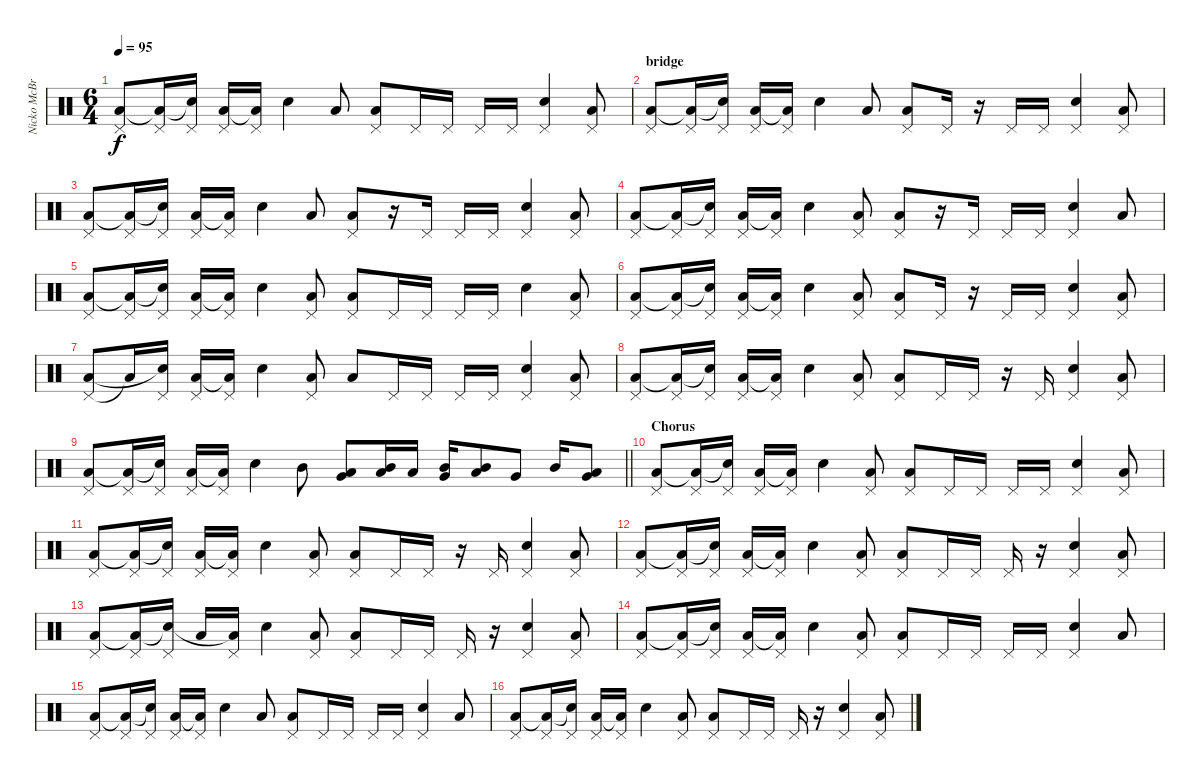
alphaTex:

\track ("Nicko McBrain" "Nicko McBr") {instrument percussion}
\staff {score}
\articulation defaults
\ts (6 4)
\tempo 95
\clef neutral
\ks c
("Pedal Hi-Hat (hit)" "Low Floor Tom (hit)").8{dy f} ("Pedal Hi-Hat (hit)" "Low Floor Tom (hit)"{t}).16 ("Pedal Hi-Hat (hit)" "Electric Snare (hit)"{t}).16 ("Pedal Hi-Hat (hit)" "Low Floor Tom (hit)").16 ("Pedal Hi-Hat (hit)" "Low Floor Tom (hit)"{t}).16 "Electric Snare (hit)".4 "Low Floor Tom (hit)".8 ("Pedal Hi-Hat (hit)" "Low Floor Tom (hit)").8 "Pedal Hi-Hat (hit)".16 "Pedal Hi-Hat (hit)".16 "Pedal Hi-Hat (hit)".16 "Pedal Hi-Hat (hit)".16 ("Pedal Hi-Hat (hit)" "Electric Snare (hit)").4 ("Pedal Hi-Hat (hit)" "Low Floor Tom (hit)").8 |
\section ("" "bridge")
("Pedal Hi-Hat (hit)" "Low Floor Tom (hit)").8 ("Pedal Hi-Hat (hit)" "Low Floor Tom (hit)"{t}).16 ("Pedal Hi-Hat (hit)" "Electric Snare (hit)"{t}).16 ("Pedal Hi-Hat (hit)" "Low Floor Tom (hit)").16 ("Pedal Hi-Hat (hit)" "Low Floor Tom (hit)"{t}).16 "Electric Snare (hit)".4 "Low Floor Tom (hit)".8 ("Pedal Hi-Hat (hit)" "Low Floor Tom (hit)").8 "Pedal Hi-Hat (hit)".16 r.16 "Pedal Hi-Hat (hit)".16 "Pedal Hi-Hat (hit)".16 ("Pedal Hi-Hat (hit)" "Electric Snare (hit)").4 ("Pedal Hi-Hat (hit)" "Low Floor Tom (hit)").8 |
("Pedal Hi-Hat (hit)" "Low Floor Tom (hit)").8 ("Pedal Hi-Hat (hit)" "Low Floor Tom (hit)"{t}).16 ("Pedal Hi-Hat (hit)" "Electric Snare (hit)"{t}).16 ("Pedal Hi-Hat (hit)" "Low Floor Tom (hit)").16 ("Pedal Hi-Hat (hit)" "Low Floor Tom (hit)"{t}).16 "Electric Snare (hit)".4 "Low Floor Tom (hit)".8 ("Pedal Hi-Hat (hit)" "Low Floor Tom (hit)").8 r.16 "Pedal Hi-Hat (hit)".16 "Pedal Hi-Hat (hit)".16 "Pedal Hi-Hat (hit)".16 ("Pedal Hi-Hat (hit)" "Electric Snare (hit)").4 ("Pedal Hi-Hat (hit)" "Low Floor Tom (hit)").8 |
("Pedal Hi-Hat (hit)" "Low Floor Tom (hit)").8 ("Pedal Hi-Hat (hit)" "Low Floor Tom (hit)"{t}).16 ("Pedal Hi-Hat (hit)" "Electric Snare (hit)"{t}).16 ("Pedal Hi-Hat (hit)" "Low Floor Tom (hit)").16 ("Pedal Hi-Hat (hit)" "Low Floor Tom (hit)"{t}).16 "Electric Snare (hit)".4 ("Pedal Hi-Hat (hit)" "Low Floor Tom (hit)").8 ("Pedal Hi-Hat (hit)" "Low Floor Tom (hit)").8 r.16 "Pedal Hi-Hat (hit)".16 "Pedal Hi-Hat (hit)".16 "Pedal Hi-Hat (hit)".16 ("Pedal Hi-Hat (hit)" "Electric Snare (hit)").4 "Low Floor Tom (hit)".8 |
("Pedal Hi-Hat (hit)" "Low Floor Tom (hit)").8 ("Pedal Hi-Hat (hit)" "Low Floor Tom (hit)"{t}).16 ("Pedal Hi-Hat (hit)" "Electric Snare (hit)"{t}).16 ("Pedal Hi-Hat (hit)" "Low Floor Tom (hit)").16 ("Pedal Hi-Hat (hit)" "Low Floor Tom (hit)"{t}).16 "Electric Snare (hit)".4 ("Pedal Hi-Hat (hit)" "Low Floor Tom (hit)").8 ("Pedal Hi-Hat (hit)" "Low Floor Tom (hit)").8 "Pedal Hi-Hat (hit)".16 "Pedal Hi-Hat (hit)".16 "Pedal Hi-Hat (hit)".16 "Pedal Hi-Hat (hit)".16 "Electric Snare (hit)".4 ("Pedal Hi-Hat (hit)" "Low Floor Tom (hit)").8 |
("Pedal Hi-Hat (hit)" "Low Floor Tom (hit)").8 ("Pedal Hi-Hat (hit)" "Low Floor Tom (hit)"{t}).16 ("Pedal Hi-Hat (hit)" "Electric Snare (hit)"{t}).16 ("Pedal Hi-Hat (hit)" "Low Floor Tom (hit)").16 ("Pedal Hi-Hat (hit)" "Low Floor Tom (hit)"{t}).16 "Electric Snare (hit)".4 ("Pedal Hi-Hat (hit)" "Low Floor Tom (hit)").8 ("Pedal Hi-Hat (hit)" "Low Floor Tom (hit)").8 "Pedal Hi-Hat (hit)".16 r.16 "Pedal Hi-Hat (hit)".16 "Pedal Hi-Hat (hit)".16 ("Pedal Hi-Hat (hit)" "Electric Snare (hit)").4 ("Pedal Hi-Hat (hit)" "Low Floor Tom (hit)").8 |
("Pedal Hi-Hat (hit)" "Low Floor Tom (hit)").8 "Low Floor Tom (hit)"{t}.16 ("Pedal Hi-Hat (hit)" "Electric Snare (hit)"{t}).16 ("Pedal Hi-Hat (hit)" "Low Floor Tom (hit)").16 ("Pedal Hi-Hat (hit)" "Low Floor Tom (hit)"{t}).16 "Electric Snare (hit)".4 ("Pedal Hi-Hat (hit)" "Low Floor Tom (hit)").8 "Low Floor Tom (hit)".8 "Pedal Hi-Hat (hit)".16 "Pedal Hi-Hat (hit)".16 "Pedal Hi-Hat (hit)".16 "Pedal Hi-Hat (hit)".16 ("Pedal Hi-Hat (hit)" "Electric Snare (hit)").4 ("Pedal Hi-Hat (hit)" "Low Floor Tom (hit)").8 |
("Pedal Hi-Hat (hit)" "Low Floor Tom (hit)").8 ("Pedal Hi-Hat (hit)" "Low Floor Tom (hit)"{t}).16 ("Pedal Hi-Hat (hit)" "Electric Snare (hit)"{t}).16 ("Pedal Hi-Hat (hit)" "Low Floor Tom (hit)").16 ("Pedal Hi-Hat (hit)" "Low Floor Tom (hit)"{t}).16 "Electric Snare (hit)".4 ("Pedal Hi-Hat (hit)" "Low Floor Tom (hit)").8 ("Pedal Hi-Hat (hit)" "Low Floor Tom (hit)").8 "Pedal Hi-Hat (hit)".16 "Pedal Hi-Hat (hit)".16 r.16 "Pedal Hi-Hat (hit)".16 ("Pedal Hi-Hat (hit)" "Electric Snare (hit)").4 ("Pedal Hi-Hat (hit)" "Low Floor Tom (hit)").8 |
\barLineRight lightlight
("Pedal Hi-Hat (hit)" "Low Floor Tom (hit)").8 ("Pedal Hi-Hat (hit)" "Low Floor Tom (hit)"{t}).16 ("Pedal Hi-Hat (hit)" "Electric Snare (hit)"{t}).16 ("Pedal Hi-Hat (hit)" "Low Floor Tom (hit)").16 ("Pedal Hi-Hat (hit)" "Low Floor Tom (hit)"{t}).16 "Electric Snare (hit)".4 "Mid Tom (hit)".8 ("Very Low Tom (hit)" "Low Tom (hit)").8 ("Mid Tom (hit)" "Low Tom (hit)").16 "Low Tom (hit)".16 ("Very Low Tom (hit)" "Mid Tom (hit)").16 ("Mid Tom (hit)" "Low Tom (hit)").8 "Very Low Tom (hit)".8 "Mid Tom (hit)".16 ("Very Low Tom (hit)" "Low Tom (hit)").8 |
\section ("" "Chorus")
("Pedal Hi-Hat (hit)" "Low Floor Tom (hit)").8 ("Pedal Hi-Hat (hit)" "Low Floor Tom (hit)"{t}).16 ("Pedal Hi-Hat (hit)" "Electric Snare (hit)"{t}).16 ("Pedal Hi-Hat (hit)" "Low Floor Tom (hit)").16 ("Pedal Hi-Hat (hit)" "Low Floor Tom (hit)"{t}).16 "Electric Snare (hit)".4 ("Pedal Hi-Hat (hit)" "Low Floor Tom (hit)").8 ("Pedal Hi-Hat (hit)" "Low Floor Tom (hit)").8 "Pedal Hi-Hat (hit)".16 "Pedal Hi-Hat (hit)".16 "Pedal Hi-Hat (hit)".16 "Pedal Hi-Hat (hit)".16 ("Pedal Hi-Hat (hit)" "Electric Snare (hit)").4 ("Pedal Hi-Hat (hit)" "Low Floor Tom (hit)").8 |
("Pedal Hi-Hat (hit)" "Low Floor Tom (hit)").8 ("Pedal Hi-Hat (hit)" "Low Floor Tom (hit)"{t}).16 ("Pedal Hi-Hat (hit)" "Electric Snare (hit)"{t}).16 ("Pedal Hi-Hat (hit)" "Low Floor Tom (hit)").16 ("Pedal Hi-Hat (hit)" "Low Floor Tom (hit)"{t}).16 "Electric Snare (hit)".4 ("Pedal Hi-Hat (hit)" "Low Floor Tom (hit)").8 ("Pedal Hi-Hat (hit)" "Low Floor Tom (hit)").8 "Pedal Hi-Hat (hit)".16 "Pedal Hi-Hat (hit)".16 r.16 "Pedal Hi-Hat (hit)".16 ("Pedal Hi-Hat (hit)" "Electric Snare (hit)").4 ("Pedal Hi-Hat (hit)" "Low Floor Tom (hit)").8 |
("Pedal Hi-Hat (hit)" "Low Floor Tom (hit)").8 ("Pedal Hi-Hat (hit)" "Low Floor Tom (hit)"{t}).16 ("Pedal Hi-Hat (hit)" "Electric Snare (hit)"{t}).16 ("Pedal Hi-Hat (hit)" "Low Floor Tom (hit)").16 ("Pedal Hi-Hat (hit)" "Low Floor Tom (hit)"{t}).16 "Electric Snare (hit)".4 ("Pedal Hi-Hat (hit)" "Low Floor Tom (hit)").8 ("Pedal Hi-Hat (hit)" "Low Floor Tom (hit)").8 "Pedal Hi-Hat (hit)".16 "Pedal Hi-Hat (hit)".16 "Pedal Hi-Hat (hit)".16 r.16 ("Pedal Hi-Hat (hit)" "Electric Snare (hit)").4 ("Pedal Hi-Hat (hit)" "Low Floor Tom (hit)").8 |
("Pedal Hi-Hat (hit)" "Low Floor Tom (hit)").8 ("Pedal Hi-Hat (hit)" "Low Floor Tom (hit)"{t}).16 ("Pedal Hi-Hat (hit)" "Electric Snare (hit)"{t}).16 "Low Floor Tom (hit)".16 ("Pedal Hi-Hat (hit)" "Low Floor Tom (hit)"{t}).16 "Electric Snare (hit)".4 ("Pedal Hi-Hat (hit)" "Low Floor Tom (hit)").8 ("Pedal Hi-Hat (hit)" "Low Floor Tom (hit)").8 "Pedal Hi-Hat (hit)".16 "Pedal Hi-Hat (hit)".16 "Pedal Hi-Hat (hit)".16 r.16 ("Pedal Hi-Hat (hit)" "Electric Snare (hit)").4 ("Pedal Hi-Hat (hit)" "Low Floor Tom (hit)").8 |
("Pedal Hi-Hat (hit)" "Low Floor Tom (hit)").8 ("Pedal Hi-Hat (hit)" "Low Floor Tom (hit)"{t}).16 ("Pedal Hi-Hat (hit)" "Electric Snare (hit)"{t}).16 ("Pedal Hi-Hat (hit)" "Low Floor Tom (hit)").16 ("Pedal Hi-Hat (hit)" "Low Floor Tom (hit)"{t}).16 "Electric Snare (hit)".4 ("Pedal Hi-Hat (hit)" "Low Floor Tom (hit)").8 ("Pedal Hi-Hat (hit)" "Low Floor Tom (hit)").8 "Pedal Hi-Hat (hit)".16 "Pedal Hi-Hat (hit)".16 "Pedal Hi-Hat (hit)".16 "Pedal Hi-Hat (hit)".16 ("Pedal Hi-Hat (hit)" "Electric Snare (hit)").4 "Low Floor Tom (hit)".8 |
("Pedal Hi-Hat (hit)" "Low Floor Tom (hit)").8 ("Pedal Hi-Hat (hit)" "Low Floor Tom (hit)"{t}).16 ("Pedal Hi-Hat (hit)" "Electric Snare (hit)"{t}).16 ("Pedal Hi-Hat (hit)" "Low Floor Tom (hit)").16 ("Pedal Hi-Hat (hit)" "Low Floor Tom (hit)"{t}).16 "Electric Snare (hit)".4 "Low Floor Tom (hit)".8 ("Pedal Hi-Hat (hit)" "Low Floor Tom (hit)").8 "Pedal Hi-Hat (hit)".16 "Pedal Hi-Hat (hit)".16 "Pedal Hi-Hat (hit)".16 "Pedal Hi-Hat (hit)".16 ("Pedal Hi-Hat (hit)" "Electric Snare (hit)").4 "Low Floor Tom (hit)".8 |
("Pedal Hi-Hat (hit)" "Low Floor Tom (hit)").8 ("Pedal Hi-Hat (hit)" "Low Floor Tom (hit)"{t}).16 ("Pedal Hi-Hat (hit)" "Electric Snare (hit)"{t}).16 ("Pedal Hi-Hat (hit)" "Low Floor Tom (hit)").16 ("Pedal Hi-Hat (hit)" "Low Floor Tom (hit)"{t}).16 "Electric Snare (hit)".4 ("Pedal Hi-Hat (hit)" "Low Floor Tom (hit)").8 ("Pedal Hi-Hat (hit)" "Low Floor Tom (hit)").8 "Pedal Hi-Hat (hit)".16 "Pedal Hi-Hat (hit)".16 "Pedal Hi-Hat (hit)".16 r.16 ("Pedal Hi-Hat (hit)" "Electric Snare (hit)").4 ("Pedal Hi-Hat (hit)" "Low Floor Tom (hit)").8
